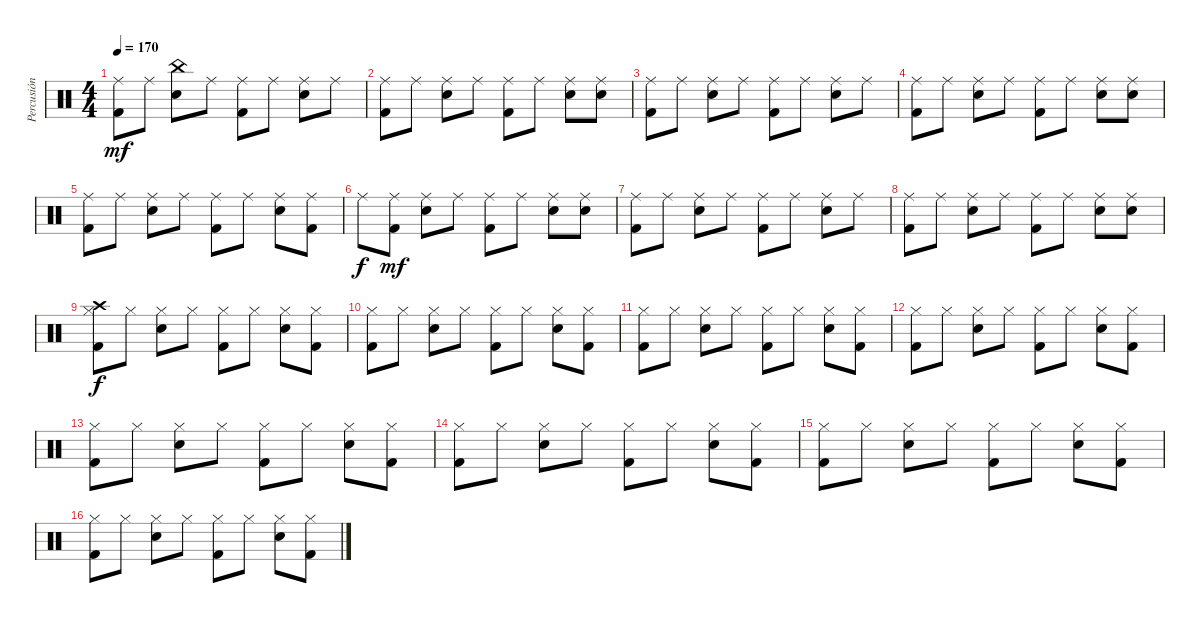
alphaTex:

\track ("Percusión" "Percusión") {instrument percussion}
\staff {score}
\articulation defaults
\ts (4 4)
\tempo 170
\clef neutral
\ks c
("Ride (middle)" "Kick (hit) 2").8{dy mf} "Ride (middle)".8 ("China (hit)" "Electric Snare (hit)").8 "Ride (middle)".8 ("Ride (middle)" "Kick (hit) 2").8 "Ride (middle)".8 ("Ride (middle)" "Electric Snare (hit)").8 "Ride (middle)".8 |
("Ride (middle)" "Kick (hit) 2").8 "Ride (middle)".8 ("Ride (middle)" "Electric Snare (hit)").8 "Ride (middle)".8 ("Ride (middle)" "Kick (hit) 2").8 "Ride (middle)".8 ("Ride (middle)" "Electric Snare (hit)").8 ("Ride (middle)" "Electric Snare (hit)").8 |
("Ride (middle)" "Kick (hit) 2").8 "Ride (middle)".8 ("Ride (middle)" "Electric Snare (hit)").8 "Ride (middle)".8 ("Ride (middle)" "Kick (hit) 2").8 "Ride (middle)".8 ("Ride (middle)" "Electric Snare (hit)").8 "Ride (middle)".8 |
("Ride (middle)" "Kick (hit) 2").8 "Ride (middle)".8 ("Ride (middle)" "Electric Snare (hit)").8 "Ride (middle)".8 ("Ride (middle)" "Kick (hit) 2").8 "Ride (middle)".8 ("Ride (middle)" "Electric Snare (hit)").8 ("Ride (middle)" "Electric Snare (hit)").8 |
("Ride (middle)" "Kick (hit) 2").8 "Ride (middle)".8 ("Ride (middle)" "Electric Snare (hit)").8 "Ride (middle)".8 ("Ride (middle)" "Kick (hit) 2").8 "Ride (middle)".8 ("Ride (middle)" "Electric Snare (hit)").8 ("Ride (middle)" "Kick (hit) 2").8 |
"Ride (middle)".8{dy f} ("Ride (middle)" "Kick (hit) 2").8{dy mf} ("Ride (middle)" "Electric Snare (hit)").8 "Ride (middle)".8 ("Ride (middle)" "Kick (hit) 2").8 "Ride (middle)".8 ("Ride (middle)" "Electric Snare (hit)").8 ("Ride (middle)" "Electric Snare (hit)").8 |
("Ride (middle)" "Kick (hit) 2").8 "Ride (middle)".8 ("Ride (middle)" "Electric Snare (hit)").8 "Ride (middle)".8 ("Ride (middle)" "Kick (hit) 2").8 "Ride (middle)".8 ("Ride (middle)" "Electric Snare (hit)").8 "Ride (middle)".8 |
("Ride (middle)" "Kick (hit) 2").8 "Ride (middle)".8 ("Ride (middle)" "Electric Snare (hit)").8 "Ride (middle)".8 ("Ride (middle)" "Kick (hit) 2").8 "Ride (middle)".8 ("Ride (middle)" "Electric Snare (hit)").8 ("Ride (middle)" "Electric Snare (hit)").8 |
("Crash high (hit)" "Hi-Hat (closed)" "Kick (hit) 2").8{dy f} "Hi-Hat (closed)".8 ("Hi-Hat (closed)" "Electric Snare (hit)").8 "Hi-Hat (closed)".8 ("Hi-Hat (closed)" "Kick (hit) 2").8 "Hi-Hat (closed)".8 ("Hi-Hat (closed)" "Electric Snare (hit)").8 ("Hi-Hat (closed)" "Kick (hit) 2").8 |
("Hi-Hat (closed)" "Kick (hit) 2").8 "Hi-Hat (closed)".8 ("Hi-Hat (closed)" "Electric Snare (hit)").8 "Hi-Hat (closed)".8 ("Hi-Hat (closed)" "Kick (hit) 2").8 "Hi-Hat (closed)".8 ("Hi-Hat (closed)" "Electric Snare (hit)").8 ("Hi-Hat (closed)" "Kick (hit) 2").8 |
("Hi-Hat (closed)" "Kick (hit) 2").8 "Hi-Hat (closed)".8 ("Hi-Hat (closed)" "Electric Snare (hit)").8 "Hi-Hat (closed)".8 ("Hi-Hat (closed)" "Kick (hit) 2").8 "Hi-Hat (closed)".8 ("Hi-Hat (closed)" "Electric Snare (hit)").8 ("Hi-Hat (closed)" "Kick (hit) 2").8 |
("Hi-Hat (closed)" "Kick (hit) 2").8 "Hi-Hat (closed)".8 ("Hi-Hat (closed)" "Electric Snare (hit)").8 "Hi-Hat (closed)".8 ("Hi-Hat (closed)" "Kick (hit) 2").8 "Hi-Hat (closed)".8 ("Hi-Hat (closed)" "Electric Snare (hit)").8 ("Hi-Hat (closed)" "Kick (hit) 2").8 |
("Hi-Hat (closed)" "Kick (hit) 2").8 "Hi-Hat (closed)".8 ("Hi-Hat (closed)" "Electric Snare (hit)").8 "Hi-Hat (closed)".8 ("Hi-Hat (closed)" "Kick (hit) 2").8 "Hi-Hat (closed)".8 ("Hi-Hat (closed)" "Electric Snare (hit)").8 ("Hi-Hat (closed)" "Kick (hit) 2").8 |
("Hi-Hat (closed)" "Kick (hit) 2").8 "Hi-Hat (closed)".8 ("Hi-Hat (closed)" "Electric Snare (hit)").8 "Hi-Hat (closed)".8 ("Hi-Hat (closed)" "Kick (hit) 2").8 "Hi-Hat (closed)".8 ("Hi-Hat (closed)" "Electric Snare (hit)").8 ("Hi-Hat (closed)" "Kick (hit) 2").8 |
("Hi-Hat (closed)" "Kick (hit) 2").8 "Hi-Hat (closed)".8 ("Hi-Hat (closed)" "Electric Snare (hit)").8 "Hi-Hat (closed)".8 ("Hi-Hat (closed)" "Kick (hit) 2").8 "Hi-Hat (closed)".8 ("Hi-Hat (closed)" "Electric Snare (hit)").8 ("Hi-Hat (closed)" "Kick (hit) 2").8 |
("Hi-Hat (closed)" "Kick (hit) 2").8 "Hi-Hat (closed)".8 ("Hi-Hat (closed)" "Electric Snare (hit)").8 "Hi-Hat (closed)".8 ("Hi-Hat (closed)" "Kick (hit) 2").8 "Hi-Hat (closed)".8 ("Hi-Hat (closed)" "Electric Snare (hit)").8 ("Hi-Hat (closed)" "Kick (hit) 2").8
